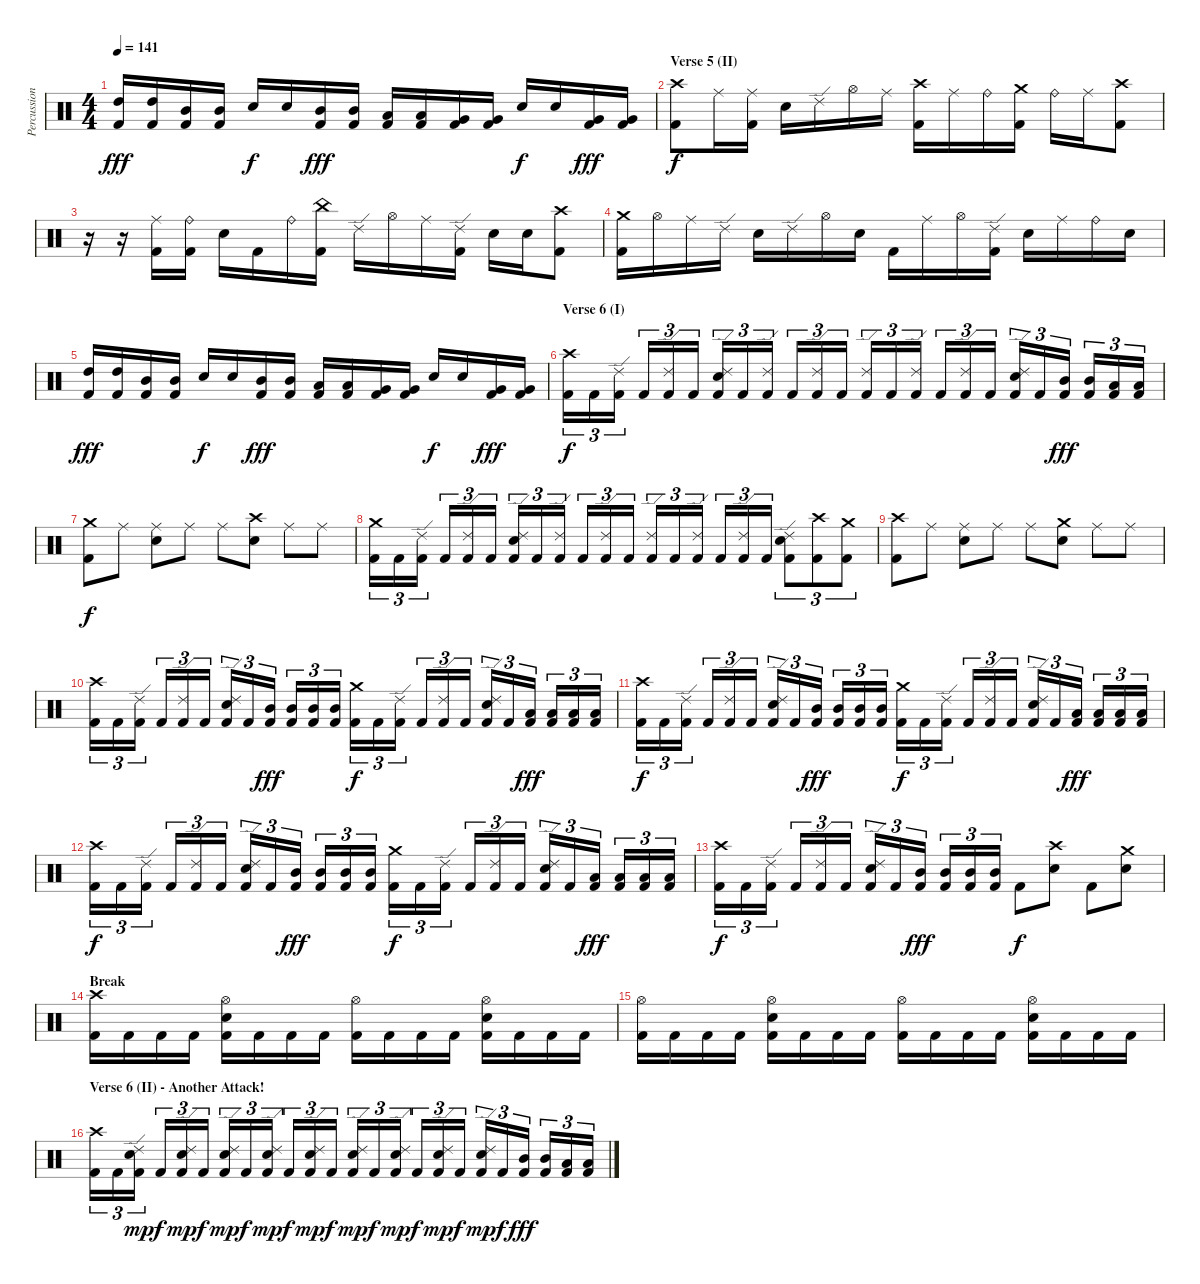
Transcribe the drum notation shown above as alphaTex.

\track ("Percussion" "Percussion") {instrument percussion}
\staff {score}
\articulation defaults
\ts (4 4)
\tempo 141
\clef neutral
\ks c
("High Tom (hit)" "Kick (hit) 2").16{dy fff} ("High Tom (hit)" "Kick (hit) 2").16 ("Mid Tom (hit)" "Kick (hit) 2").16 ("Mid Tom (hit)" "Kick (hit) 2").16 "Snare (hit) 2".16{dy f} "Snare (hit) 2".16 ("Mid Tom (hit)" "Kick (hit) 2").16{dy fff} ("Mid Tom (hit)" "Kick (hit) 2").16 ("Low Tom (hit)" "Kick (hit) 2").16 ("Low Tom (hit)" "Kick (hit) 2").16 ("Very Low Tom (hit)" "Kick (hit) 2").16 ("Very Low Tom (hit)" "Kick (hit) 2").16 "Snare (hit) 2".16{dy f} "Snare (hit) 2".16 ("Very Low Tom (hit)" "Kick (hit) 2").16{dy fff} ("Very Low Tom (hit)" "Kick (hit) 2").16 |
\section ("" "Verse 5 (II)")
("Crash high (hit)" "Kick (hit) 2").8{dy f} "Ride (middle)".16 ("Ride (middle)" "Kick (hit) 2").16 "Snare (hit) 2".16 "Ride (edge) 2".16 "Hi-Hat (open)".16 "Ride (middle)".16 ("Crash high (hit)" "Kick (hit) 2").16 "Ride (middle)".16 "Ride (bell)".16 ("Crash medium (hit)" "Kick (hit) 2").16 "Ride (bell)".16 "Ride (middle)".16 ("Crash high (hit)" "Kick (hit) 2").8 |
r.16 r.16 ("Ride (middle)" "Kick (hit) 2").16 ("Ride (bell)" "Kick (hit) 2").16 "Snare (hit) 2".16 "Kick (hit) 2".16 "Ride (bell)".16 ("China (hit)" "Kick (hit) 2").16 "Ride (edge) 2".16 "Hi-Hat (open)".16 "Ride (middle)".16 ("Ride (edge) 2" "Kick (hit) 2").16 "Snare (hit) 2".16 "Snare (hit) 2".16 ("Crash high (hit)" "Kick (hit) 2").8 |
("Crash medium (hit)" "Kick (hit) 2").16 "Hi-Hat (open)".16 "Ride (middle)".16 "Ride (edge) 2".16 "Snare (hit) 2".16 "Ride (edge) 2".16 "Hi-Hat (open)".16 "Snare (hit) 2".16 "Kick (hit) 2".16 "Ride (middle)".16 "Hi-Hat (open)".16 ("Ride (edge) 2" "Kick (hit) 2").16 "Snare (hit) 2".16 "Ride (middle)".16 "Ride (bell)".16 "Snare (hit) 2".16 |
("High Tom (hit)" "Kick (hit) 2").16{dy fff} ("High Tom (hit)" "Kick (hit) 2").16 ("Mid Tom (hit)" "Kick (hit) 2").16 ("Mid Tom (hit)" "Kick (hit) 2").16 "Snare (hit) 2".16{dy f} "Snare (hit) 2".16 ("Mid Tom (hit)" "Kick (hit) 2").16{dy fff} ("Mid Tom (hit)" "Kick (hit) 2").16 ("Low Tom (hit)" "Kick (hit) 2").16 ("Low Tom (hit)" "Kick (hit) 2").16 ("Very Low Tom (hit)" "Kick (hit) 2").16 ("Very Low Tom (hit)" "Kick (hit) 2").16 "Snare (hit) 2".16{dy f} "Snare (hit) 2".16 ("Very Low Tom (hit)" "Kick (hit) 2").16{dy fff} ("Very Low Tom (hit)" "Kick (hit) 2").16 |
\section ("" "Verse 6 (I)")
("Crash high (hit)" "Kick (hit) 2").16{tu (3 2) dy f} "Kick (hit) 2".16{tu (3 2)} ("Ride (edge) 2" "Kick (hit) 2").16{tu (3 2)} "Kick (hit) 2".16{tu (3 2)} ("Ride (edge) 2" "Kick (hit) 2").16{tu (3 2)} "Kick (hit) 2".16{tu (3 2)} ("Ride (edge) 2" "Snare (hit) 2" "Kick (hit) 2").16{tu (3 2)} "Kick (hit) 2".16{tu (3 2)} ("Ride (edge) 2" "Kick (hit) 2").16{tu (3 2)} "Kick (hit) 2".16{tu (3 2)} ("Ride (edge) 2" "Kick (hit) 2").16{tu (3 2)} "Kick (hit) 2".16{tu (3 2)} ("Ride (edge) 2" "Kick (hit) 2").16{tu (3 2)} "Kick (hit) 2".16{tu (3 2)} ("Ride (edge) 2" "Kick (hit) 2").16{tu (3 2)} "Kick (hit) 2".16{tu (3 2)} ("Ride (edge) 2" "Kick (hit) 2").16{tu (3 2)} "Kick (hit) 2".16{tu (3 2)} ("Ride (edge) 2" "Snare (hit) 2" "Kick (hit) 2").16{tu (3 2)} "Kick (hit) 2".16{tu (3 2)} ("Mid Tom (hit)" "Kick (hit) 2").16{tu (3 2) dy fff} ("Mid Tom (hit)" "Kick (hit) 2").16{tu (3 2)} ("Low Tom (hit)" "Kick (hit) 2").16{tu (3 2)} ("Low Tom (hit)" "Kick (hit) 2").16{tu (3 2)} |
("Crash medium (hit)" "Kick (hit) 2").8{dy f} "Ride (middle)".8 ("Ride (middle)" "Snare (hit) 2").8 "Ride (middle)".8 "Ride (middle)".8 ("Crash high (hit)" "Snare (hit) 2").8 "Ride (middle)".8 "Ride (middle)".8 |
("Crash medium (hit)" "Kick (hit) 2").16{tu (3 2)} "Kick (hit) 2".16{tu (3 2)} ("Ride (edge) 2" "Kick (hit) 2").16{tu (3 2)} "Kick (hit) 2".16{tu (3 2)} ("Ride (edge) 2" "Kick (hit) 2").16{tu (3 2)} "Kick (hit) 2".16{tu (3 2)} ("Ride (edge) 2" "Snare (hit) 2" "Kick (hit) 2").16{tu (3 2)} "Kick (hit) 2".16{tu (3 2)} ("Ride (edge) 2" "Kick (hit) 2").16{tu (3 2)} "Kick (hit) 2".16{tu (3 2)} ("Ride (edge) 2" "Kick (hit) 2").16{tu (3 2)} "Kick (hit) 2".16{tu (3 2)} ("Ride (edge) 2" "Kick (hit) 2").16{tu (3 2)} "Kick (hit) 2".16{tu (3 2)} ("Ride (edge) 2" "Kick (hit) 2").16{tu (3 2)} "Kick (hit) 2".16{tu (3 2)} ("Ride (edge) 2" "Kick (hit) 2").16{tu (3 2)} "Kick (hit) 2".16{tu (3 2)} ("Ride (edge) 2" "Snare (hit) 2" "Kick (hit) 2").8{tu (3 2)} ("Crash high (hit)" "Kick (hit) 2").8{tu (3 2)} ("Crash medium (hit)" "Kick (hit) 2").8{tu (3 2)} |
("Crash high (hit)" "Kick (hit) 2").8 "Ride (middle)".8 ("Ride (middle)" "Snare (hit) 2").8 "Ride (middle)".8 "Ride (middle)".8 ("Crash medium (hit)" "Snare (hit) 2").8 "Ride (middle)".8 "Ride (middle)".8 |
("Crash high (hit)" "Kick (hit) 2").16{tu (3 2)} "Kick (hit) 2".16{tu (3 2)} ("Ride (edge) 2" "Kick (hit) 2").16{tu (3 2)} "Kick (hit) 2".16{tu (3 2)} ("Ride (edge) 2" "Kick (hit) 2").16{tu (3 2)} "Kick (hit) 2".16{tu (3 2)} ("Ride (edge) 2" "Snare (hit) 2" "Kick (hit) 2").16{tu (3 2)} "Kick (hit) 2".16{tu (3 2)} ("Mid Tom (hit)" "Kick (hit) 2").16{tu (3 2) dy fff} ("Mid Tom (hit)" "Kick (hit) 2").16{tu (3 2)} ("Mid Tom (hit)" "Kick (hit) 2").16{tu (3 2)} ("Mid Tom (hit)" "Kick (hit) 2").16{tu (3 2)} ("Crash medium (hit)" "Kick (hit) 2").16{tu (3 2) dy f} "Kick (hit) 2".16{tu (3 2)} ("Ride (edge) 2" "Kick (hit) 2").16{tu (3 2)} "Kick (hit) 2".16{tu (3 2)} ("Ride (edge) 2" "Kick (hit) 2").16{tu (3 2)} "Kick (hit) 2".16{tu (3 2)} ("Ride (edge) 2" "Snare (hit) 2" "Kick (hit) 2").16{tu (3 2)} "Kick (hit) 2".16{tu (3 2)} ("Low Tom (hit)" "Kick (hit) 2").16{tu (3 2) dy fff} ("Low Tom (hit)" "Kick (hit) 2").16{tu (3 2)} ("Low Tom (hit)" "Kick (hit) 2").16{tu (3 2)} ("Low Tom (hit)" "Kick (hit) 2").16{tu (3 2)} |
("Crash high (hit)" "Kick (hit) 2").16{tu (3 2) dy f} "Kick (hit) 2".16{tu (3 2)} ("Ride (edge) 2" "Kick (hit) 2").16{tu (3 2)} "Kick (hit) 2".16{tu (3 2)} ("Ride (edge) 2" "Kick (hit) 2").16{tu (3 2)} "Kick (hit) 2".16{tu (3 2)} ("Ride (edge) 2" "Snare (hit) 2" "Kick (hit) 2").16{tu (3 2)} "Kick (hit) 2".16{tu (3 2)} ("Mid Tom (hit)" "Kick (hit) 2").16{tu (3 2) dy fff} ("Mid Tom (hit)" "Kick (hit) 2").16{tu (3 2)} ("Mid Tom (hit)" "Kick (hit) 2").16{tu (3 2)} ("Mid Tom (hit)" "Kick (hit) 2").16{tu (3 2)} ("Crash medium (hit)" "Kick (hit) 2").16{tu (3 2) dy f} "Kick (hit) 2".16{tu (3 2)} ("Ride (edge) 2" "Kick (hit) 2").16{tu (3 2)} "Kick (hit) 2".16{tu (3 2)} ("Ride (edge) 2" "Kick (hit) 2").16{tu (3 2)} "Kick (hit) 2".16{tu (3 2)} ("Ride (edge) 2" "Snare (hit) 2" "Kick (hit) 2").16{tu (3 2)} "Kick (hit) 2".16{tu (3 2)} ("Low Tom (hit)" "Kick (hit) 2").16{tu (3 2) dy fff} ("Low Tom (hit)" "Kick (hit) 2").16{tu (3 2)} ("Low Tom (hit)" "Kick (hit) 2").16{tu (3 2)} ("Low Tom (hit)" "Kick (hit) 2").16{tu (3 2)} |
("Crash high (hit)" "Kick (hit) 2").16{tu (3 2) dy f} "Kick (hit) 2".16{tu (3 2)} ("Ride (edge) 2" "Kick (hit) 2").16{tu (3 2)} "Kick (hit) 2".16{tu (3 2)} ("Ride (edge) 2" "Kick (hit) 2").16{tu (3 2)} "Kick (hit) 2".16{tu (3 2)} ("Ride (edge) 2" "Snare (hit) 2" "Kick (hit) 2").16{tu (3 2)} "Kick (hit) 2".16{tu (3 2)} ("Mid Tom (hit)" "Kick (hit) 2").16{tu (3 2) dy fff} ("Mid Tom (hit)" "Kick (hit) 2").16{tu (3 2)} ("Mid Tom (hit)" "Kick (hit) 2").16{tu (3 2)} ("Mid Tom (hit)" "Kick (hit) 2").16{tu (3 2)} ("Crash medium (hit)" "Kick (hit) 2").16{tu (3 2) dy f} "Kick (hit) 2".16{tu (3 2)} ("Ride (edge) 2" "Kick (hit) 2").16{tu (3 2)} "Kick (hit) 2".16{tu (3 2)} ("Ride (edge) 2" "Kick (hit) 2").16{tu (3 2)} "Kick (hit) 2".16{tu (3 2)} ("Ride (edge) 2" "Snare (hit) 2" "Kick (hit) 2").16{tu (3 2)} "Kick (hit) 2".16{tu (3 2)} ("Low Tom (hit)" "Kick (hit) 2").16{tu (3 2) dy fff} ("Low Tom (hit)" "Kick (hit) 2").16{tu (3 2)} ("Low Tom (hit)" "Kick (hit) 2").16{tu (3 2)} ("Low Tom (hit)" "Kick (hit) 2").16{tu (3 2)} |
("Crash high (hit)" "Kick (hit) 2").16{tu (3 2) dy f} "Kick (hit) 2".16{tu (3 2)} ("Ride (edge) 2" "Kick (hit) 2").16{tu (3 2)} "Kick (hit) 2".16{tu (3 2)} ("Ride (edge) 2" "Kick (hit) 2").16{tu (3 2)} "Kick (hit) 2".16{tu (3 2)} ("Ride (edge) 2" "Snare (hit) 2" "Kick (hit) 2").16{tu (3 2)} "Kick (hit) 2".16{tu (3 2)} ("Mid Tom (hit)" "Kick (hit) 2").16{tu (3 2) dy fff} ("Mid Tom (hit)" "Kick (hit) 2").16{tu (3 2)} ("Mid Tom (hit)" "Kick (hit) 2").16{tu (3 2)} ("Mid Tom (hit)" "Kick (hit) 2").16{tu (3 2)} "Kick (hit) 2".8{dy f} ("Crash high (hit)" "Snare (hit) 2").8 "Kick (hit) 2".8 ("Crash medium (hit)" "Snare (hit) 2").8 |
\section ("" "Break")
("Crash high (hit)" "Kick (hit) 2").16 "Kick (hit) 2".16 "Kick (hit) 2".16 "Kick (hit) 2".16 ("Hi-Hat (open)" "Snare (hit) 2" "Kick (hit) 2").16 "Kick (hit) 2".16 "Kick (hit) 2".16 "Kick (hit) 2".16 ("Hi-Hat (open)" "Kick (hit) 2").16 "Kick (hit) 2".16 "Kick (hit) 2".16 "Kick (hit) 2".16 ("Hi-Hat (open)" "Snare (hit) 2" "Kick (hit) 2").16 "Kick (hit) 2".16 "Kick (hit) 2".16 "Kick (hit) 2".16 |
("Hi-Hat (open)" "Kick (hit) 2").16 "Kick (hit) 2".16 "Kick (hit) 2".16 "Kick (hit) 2".16 ("Hi-Hat (open)" "Snare (hit) 2" "Kick (hit) 2").16 "Kick (hit) 2".16 "Kick (hit) 2".16 "Kick (hit) 2".16 ("Hi-Hat (open)" "Kick (hit) 2").16 "Kick (hit) 2".16 "Kick (hit) 2".16 "Kick (hit) 2".16 ("Hi-Hat (open)" "Snare (hit) 2" "Kick (hit) 2").16 "Kick (hit) 2".16 "Kick (hit) 2".16 "Kick (hit) 2".16 |
\section ("" "Verse 6 (II) - Another Attack! ")
("Crash high (hit)" "Kick (hit) 2").16{tu (3 2)} "Kick (hit) 2".16{tu (3 2)} ("Ride (edge) 2" "Snare (hit) 2" "Kick (hit) 2").16{tu (3 2) dy mp} "Kick (hit) 2".16{tu (3 2) dy f} ("Ride (edge) 2" "Snare (hit) 2" "Kick (hit) 2").16{tu (3 2) dy mp} "Kick (hit) 2".16{tu (3 2) dy f} ("Ride (edge) 2" "Snare (hit) 2" "Kick (hit) 2").16{tu (3 2) dy mp} "Kick (hit) 2".16{tu (3 2) dy f} ("Ride (edge) 2" "Snare (hit) 2" "Kick (hit) 2").16{tu (3 2) dy mp} "Kick (hit) 2".16{tu (3 2) dy f} ("Ride (edge) 2" "Snare (hit) 2" "Kick (hit) 2").16{tu (3 2) dy mp} "Kick (hit) 2".16{tu (3 2) dy f} ("Ride (edge) 2" "Snare (hit) 2" "Kick (hit) 2").16{tu (3 2) dy mp} "Kick (hit) 2".16{tu (3 2) dy f} ("Ride (edge) 2" "Snare (hit) 2" "Kick (hit) 2").16{tu (3 2) dy mp} "Kick (hit) 2".16{tu (3 2) dy f} ("Ride (edge) 2" "Snare (hit) 2" "Kick (hit) 2").16{tu (3 2) dy mp} "Kick (hit) 2".16{tu (3 2) dy f} ("Ride (edge) 2" "Snare (hit) 2" "Kick (hit) 2").16{tu (3 2) dy mp} "Kick (hit) 2".16{tu (3 2) dy f} ("Mid Tom (hit)" "Kick (hit) 2").16{tu (3 2) dy fff} ("Mid Tom (hit)" "Kick (hit) 2").16{tu (3 2)} ("Low Tom (hit)" "Kick (hit) 2").16{tu (3 2)} ("Low Tom (hit)" "Kick (hit) 2").16{tu (3 2)}
